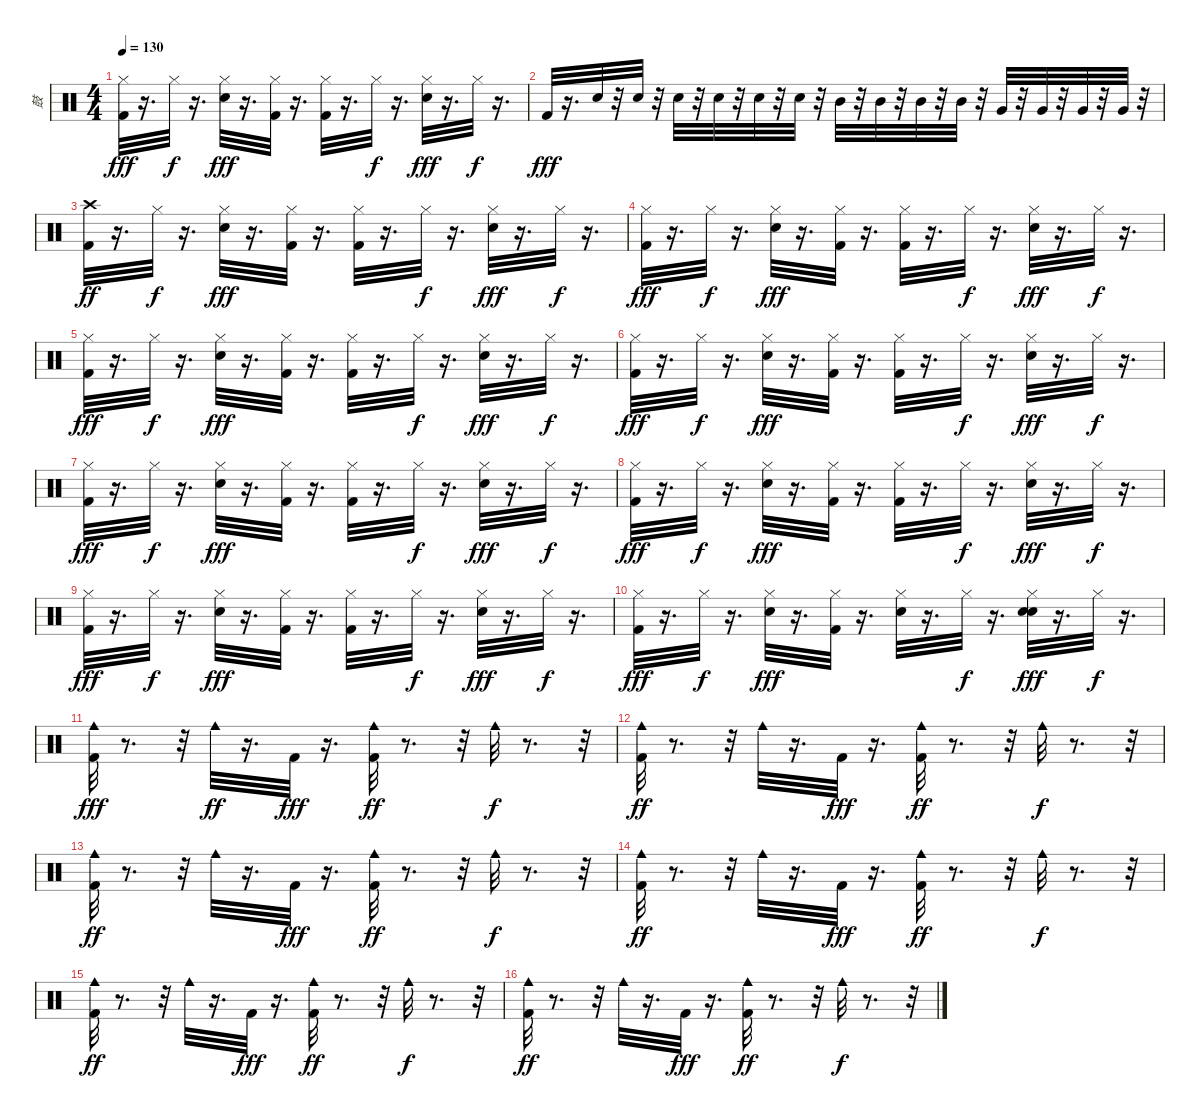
\track ("鼓" "鼓") {instrument percussion}
\staff {score}
\articulation defaults
\ts (4 4)
\tempo 130
\clef neutral
\ks c
("Kick (hit) 2" "Hi-Hat (closed)").32{dy fff} r.16{d} "Hi-Hat (closed)".32{dy f} r.16{d} ("Hi-Hat (closed)" "Electric Snare (hit)").32{dy fff} r.16{d} ("Kick (hit) 2" "Hi-Hat (closed)").32 r.16{d} ("Kick (hit) 2" "Hi-Hat (closed)").32 r.16{d} "Hi-Hat (closed)".32{dy f} r.16{d} ("Hi-Hat (closed)" "Electric Snare (hit)").32{dy fff} r.16{d} "Hi-Hat (closed)".32{dy f} r.16{d} |
"Kick (hit) 2".32{dy fff} r.16{d} "Snare (hit) 2".32 r.32 "Electric Snare (hit)".32 r.32 "Snare (hit) 2".32 r.32 "Electric Snare (hit)".32 r.32 "Snare (hit) 2".32 r.32 "Electric Snare (hit)".32 r.32 "Mid Tom (hit)".32 r.32 "Mid Tom (hit)".32 r.32 "Mid Tom (hit)".32 r.32 "Mid Tom (hit)".32 r.32 "Very Low Tom (hit)".32 r.32 "Very Low Tom (hit)".32 r.32 "Very Low Tom (hit)".32 r.32 "Very Low Tom (hit)".32 r.32 |
("Kick (hit) 2" "Crash high (hit)").32{dy ff} r.16{d} "Hi-Hat (closed)".32{dy f} r.16{d} ("Hi-Hat (closed)" "Electric Snare (hit)").32{dy fff} r.16{d} ("Kick (hit) 2" "Hi-Hat (closed)").32 r.16{d} ("Kick (hit) 2" "Hi-Hat (closed)").32 r.16{d} "Hi-Hat (closed)".32{dy f} r.16{d} ("Hi-Hat (closed)" "Electric Snare (hit)").32{dy fff} r.16{d} "Hi-Hat (closed)".32{dy f} r.16{d} |
("Kick (hit) 2" "Hi-Hat (closed)").32{dy fff} r.16{d} "Hi-Hat (closed)".32{dy f} r.16{d} ("Hi-Hat (closed)" "Electric Snare (hit)").32{dy fff} r.16{d} ("Kick (hit) 2" "Hi-Hat (closed)").32 r.16{d} ("Kick (hit) 2" "Hi-Hat (closed)").32 r.16{d} "Hi-Hat (closed)".32{dy f} r.16{d} ("Hi-Hat (closed)" "Electric Snare (hit)").32{dy fff} r.16{d} "Hi-Hat (closed)".32{dy f} r.16{d} |
("Kick (hit) 2" "Hi-Hat (closed)").32{dy fff} r.16{d} "Hi-Hat (closed)".32{dy f} r.16{d} ("Hi-Hat (closed)" "Electric Snare (hit)").32{dy fff} r.16{d} ("Kick (hit) 2" "Hi-Hat (closed)").32 r.16{d} ("Kick (hit) 2" "Hi-Hat (closed)").32 r.16{d} "Hi-Hat (closed)".32{dy f} r.16{d} ("Hi-Hat (closed)" "Electric Snare (hit)").32{dy fff} r.16{d} "Hi-Hat (closed)".32{dy f} r.16{d} |
("Hi-Hat (closed)" "Kick (hit) 2").32{dy fff} r.16{d} "Hi-Hat (closed)".32{dy f} r.16{d} ("Hi-Hat (closed)" "Electric Snare (hit)").32{dy fff} r.16{d} ("Kick (hit) 2" "Hi-Hat (closed)").32 r.16{d} ("Kick (hit) 2" "Hi-Hat (closed)").32 r.16{d} "Hi-Hat (closed)".32{dy f} r.16{d} ("Hi-Hat (closed)" "Electric Snare (hit)").32{dy fff} r.16{d} "Hi-Hat (closed)".32{dy f} r.16{d} |
("Kick (hit) 2" "Hi-Hat (closed)").32{dy fff} r.16{d} "Hi-Hat (closed)".32{dy f} r.16{d} ("Hi-Hat (closed)" "Electric Snare (hit)").32{dy fff} r.16{d} ("Kick (hit) 2" "Hi-Hat (closed)").32 r.16{d} ("Kick (hit) 2" "Hi-Hat (closed)").32 r.16{d} "Hi-Hat (closed)".32{dy f} r.16{d} ("Hi-Hat (closed)" "Electric Snare (hit)").32{dy fff} r.16{d} "Hi-Hat (closed)".32{dy f} r.16{d} |
("Kick (hit) 2" "Hi-Hat (closed)").32{dy fff} r.16{d} "Hi-Hat (closed)".32{dy f} r.16{d} ("Hi-Hat (closed)" "Electric Snare (hit)").32{dy fff} r.16{d} ("Kick (hit) 2" "Hi-Hat (closed)").32 r.16{d} ("Kick (hit) 2" "Hi-Hat (closed)").32 r.16{d} "Hi-Hat (closed)".32{dy f} r.16{d} ("Hi-Hat (closed)" "Electric Snare (hit)").32{dy fff} r.16{d} "Hi-Hat (closed)".32{dy f} r.16{d} |
("Kick (hit) 2" "Hi-Hat (closed)").32{dy fff} r.16{d} "Hi-Hat (closed)".32{dy f} r.16{d} ("Hi-Hat (closed)" "Electric Snare (hit)").32{dy fff} r.16{d} ("Kick (hit) 2" "Hi-Hat (closed)").32 r.16{d} ("Kick (hit) 2" "Hi-Hat (closed)").32 r.16{d} "Hi-Hat (closed)".32{dy f} r.16{d} ("Hi-Hat (closed)" "Electric Snare (hit)").32{dy fff} r.16{d} "Hi-Hat (closed)".32{dy f} r.16{d} |
("Kick (hit) 2" "Hi-Hat (closed)").32{dy fff} r.16{d} "Hi-Hat (closed)".32{dy f} r.16{d} ("Hi-Hat (closed)" "Electric Snare (hit)").32{dy fff} r.16{d} ("Kick (hit) 2" "Hi-Hat (closed)").32 r.16{d} ("Electric Snare (hit)" "Hi-Hat (closed)").32 r.16{d} "Hi-Hat (closed)".32{dy f} r.16{d} ("Electric Snare (hit)" "Hi-Hat (closed)" "Electric Snare (hit)").32{dy fff} r.16{d} "Hi-Hat (closed)".32{dy f} r.16{d} |
("Cowbell medium (hit)" "Kick (hit) 2").32{dy fff} r.8{d} r.32 "Cowbell medium (hit)".32{dy ff} r.16{d} "Kick (hit) 2".32{dy fff} r.16{d} ("Kick (hit) 2" "Cowbell medium (hit)").32{dy ff} r.8{d} r.32 "Cowbell medium (hit)".32{dy f} r.8{d} r.32 |
("Kick (hit) 2" "Cowbell medium (hit)").32{dy ff} r.8{d} r.32 "Cowbell medium (hit)".32 r.16{d} "Kick (hit) 2".32{dy fff} r.16{d} ("Kick (hit) 2" "Cowbell medium (hit)").32{dy ff} r.8{d} r.32 "Cowbell medium (hit)".32{dy f} r.8{d} r.32 |
("Kick (hit) 2" "Cowbell medium (hit)").32{dy ff} r.8{d} r.32 "Cowbell medium (hit)".32 r.16{d} "Kick (hit) 2".32{dy fff} r.16{d} ("Kick (hit) 2" "Cowbell medium (hit)").32{dy ff} r.8{d} r.32 "Cowbell medium (hit)".32{dy f} r.8{d} r.32 |
("Kick (hit) 2" "Cowbell medium (hit)").32{dy ff} r.8{d} r.32 "Cowbell medium (hit)".32 r.16{d} "Kick (hit) 2".32{dy fff} r.16{d} ("Kick (hit) 2" "Cowbell medium (hit)").32{dy ff} r.8{d} r.32 "Cowbell medium (hit)".32{dy f} r.8{d} r.32 |
("Kick (hit) 2" "Cowbell medium (hit)").32{dy ff} r.8{d} r.32 "Cowbell medium (hit)".32 r.16{d} "Kick (hit) 2".32{dy fff} r.16{d} ("Kick (hit) 2" "Cowbell medium (hit)").32{dy ff} r.8{d} r.32 "Cowbell medium (hit)".32{dy f} r.8{d} r.32 |
("Kick (hit) 2" "Cowbell medium (hit)").32{dy ff} r.8{d} r.32 "Cowbell medium (hit)".32 r.16{d} "Kick (hit) 2".32{dy fff} r.16{d} ("Kick (hit) 2" "Cowbell medium (hit)").32{dy ff} r.8{d} r.32 "Cowbell medium (hit)".32{dy f} r.8{d} r.32
